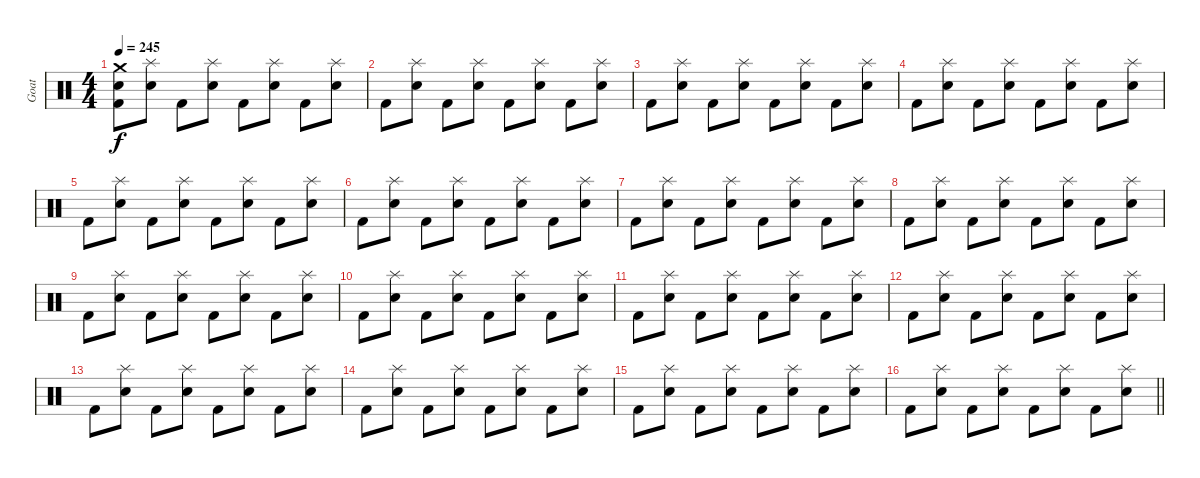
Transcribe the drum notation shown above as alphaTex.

\track ("Goat" "Goat") {instrument percussion}
\staff {score}
\articulation defaults
\ts (4 4)
\tempo 245
\clef neutral
\ks c
("Snare (hit) 2" "Crash medium (hit)" "Kick (hit) 2").8{dy f} ("Splash (hit)" "Snare (hit) 2").8 "Kick (hit) 2".8 ("Splash (hit)" "Snare (hit) 2").8 "Kick (hit) 2".8 ("Splash (hit)" "Snare (hit) 2").8 "Kick (hit) 2".8 ("Splash (hit)" "Snare (hit) 2").8 |
"Kick (hit) 2".8 ("Splash (hit)" "Snare (hit) 2").8 "Kick (hit) 2".8 ("Splash (hit)" "Snare (hit) 2").8 "Kick (hit) 2".8 ("Splash (hit)" "Snare (hit) 2").8 "Kick (hit) 2".8 ("Splash (hit)" "Snare (hit) 2").8 |
"Kick (hit) 2".8 ("Splash (hit)" "Snare (hit) 2").8 "Kick (hit) 2".8 ("Splash (hit)" "Snare (hit) 2").8 "Kick (hit) 2".8 ("Splash (hit)" "Snare (hit) 2").8 "Kick (hit) 2".8 ("Splash (hit)" "Snare (hit) 2").8 |
"Kick (hit) 2".8 ("Splash (hit)" "Snare (hit) 2").8 "Kick (hit) 2".8 ("Splash (hit)" "Snare (hit) 2").8 "Kick (hit) 2".8 ("Splash (hit)" "Snare (hit) 2").8 "Kick (hit) 2".8 ("Splash (hit)" "Snare (hit) 2").8 |
"Kick (hit) 2".8 ("Splash (hit)" "Snare (hit) 2").8 "Kick (hit) 2".8 ("Splash (hit)" "Snare (hit) 2").8 "Kick (hit) 2".8 ("Splash (hit)" "Snare (hit) 2").8 "Kick (hit) 2".8 ("Splash (hit)" "Snare (hit) 2").8 |
"Kick (hit) 2".8 ("Splash (hit)" "Snare (hit) 2").8 "Kick (hit) 2".8 ("Splash (hit)" "Snare (hit) 2").8 "Kick (hit) 2".8 ("Splash (hit)" "Snare (hit) 2").8 "Kick (hit) 2".8 ("Splash (hit)" "Snare (hit) 2").8 |
"Kick (hit) 2".8 ("Splash (hit)" "Snare (hit) 2").8 "Kick (hit) 2".8 ("Splash (hit)" "Snare (hit) 2").8 "Kick (hit) 2".8 ("Splash (hit)" "Snare (hit) 2").8 "Kick (hit) 2".8 ("Splash (hit)" "Snare (hit) 2").8 |
"Kick (hit) 2".8 ("Splash (hit)" "Snare (hit) 2").8 "Kick (hit) 2".8 ("Splash (hit)" "Snare (hit) 2").8 "Kick (hit) 2".8 ("Splash (hit)" "Snare (hit) 2").8 "Kick (hit) 2".8 ("Splash (hit)" "Snare (hit) 2").8 |
"Kick (hit) 2".8 ("Splash (hit)" "Snare (hit) 2").8 "Kick (hit) 2".8 ("Splash (hit)" "Snare (hit) 2").8 "Kick (hit) 2".8 ("Splash (hit)" "Snare (hit) 2").8 "Kick (hit) 2".8 ("Splash (hit)" "Snare (hit) 2").8 |
"Kick (hit) 2".8 ("Splash (hit)" "Snare (hit) 2").8 "Kick (hit) 2".8 ("Splash (hit)" "Snare (hit) 2").8 "Kick (hit) 2".8 ("Splash (hit)" "Snare (hit) 2").8 "Kick (hit) 2".8 ("Splash (hit)" "Snare (hit) 2").8 |
"Kick (hit) 2".8 ("Splash (hit)" "Snare (hit) 2").8 "Kick (hit) 2".8 ("Splash (hit)" "Snare (hit) 2").8 "Kick (hit) 2".8 ("Splash (hit)" "Snare (hit) 2").8 "Kick (hit) 2".8 ("Splash (hit)" "Snare (hit) 2").8 |
"Kick (hit) 2".8 ("Splash (hit)" "Snare (hit) 2").8 "Kick (hit) 2".8 ("Splash (hit)" "Snare (hit) 2").8 "Kick (hit) 2".8 ("Splash (hit)" "Snare (hit) 2").8 "Kick (hit) 2".8 ("Splash (hit)" "Snare (hit) 2").8 |
"Kick (hit) 2".8 ("Splash (hit)" "Snare (hit) 2").8 "Kick (hit) 2".8 ("Splash (hit)" "Snare (hit) 2").8 "Kick (hit) 2".8 ("Splash (hit)" "Snare (hit) 2").8 "Kick (hit) 2".8 ("Splash (hit)" "Snare (hit) 2").8 |
"Kick (hit) 2".8 ("Splash (hit)" "Snare (hit) 2").8 "Kick (hit) 2".8 ("Splash (hit)" "Snare (hit) 2").8 "Kick (hit) 2".8 ("Splash (hit)" "Snare (hit) 2").8 "Kick (hit) 2".8 ("Splash (hit)" "Snare (hit) 2").8 |
"Kick (hit) 2".8 ("Splash (hit)" "Snare (hit) 2").8 "Kick (hit) 2".8 ("Splash (hit)" "Snare (hit) 2").8 "Kick (hit) 2".8 ("Splash (hit)" "Snare (hit) 2").8 "Kick (hit) 2".8 ("Splash (hit)" "Snare (hit) 2").8 |
\barLineRight lightlight "Kick (hit) 2".8
("Splash (hit)" "Snare (hit) 2").8 "Kick (hit) 2".8 ("Splash (hit)" "Snare (hit) 2").8 "Kick (hit) 2".8 ("Splash (hit)" "Snare (hit) 2").8 "Kick (hit) 2".8 ("Splash (hit)" "Snare (hit) 2").8
